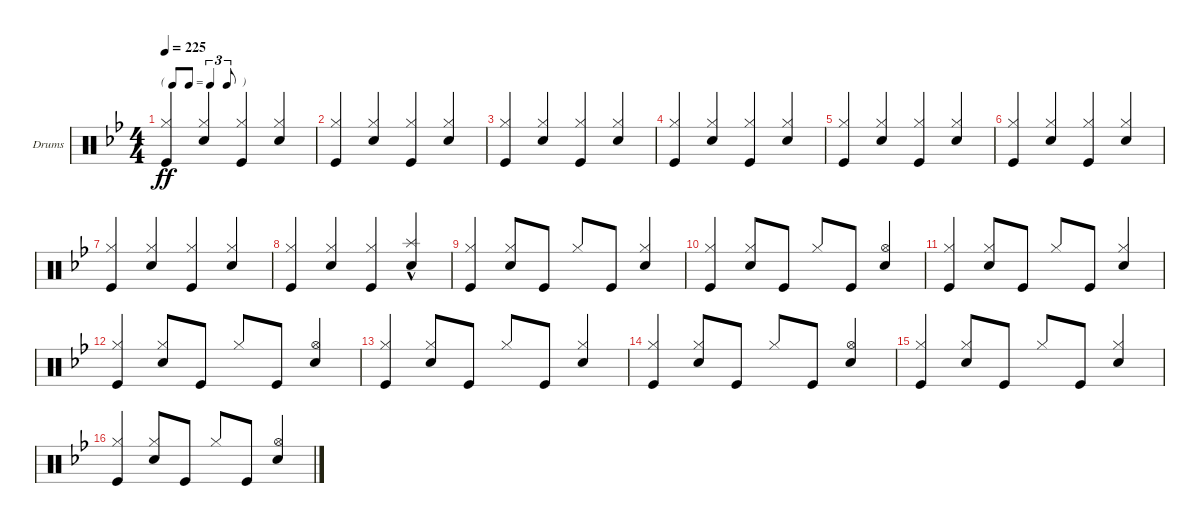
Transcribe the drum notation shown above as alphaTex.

\defaultSystemsLayout 4
\bracketExtendMode groupsimilarinstruments
\firstSystemTrackNameOrientation horizontal
\otherSystemsTrackNameOrientation horizontal
\track ("Drumkit" "Drums") {instrument percussion}
\staff {score}
\articulation defaults
\ts (4 4)
\tf triplet8th
\tempo 225
\clef neutral
\ks gminor
("Kick (hit)" "Hi-Hat (closed)").4{dy ff} ("Snare (hit) 2" "Hi-Hat (closed)").4{beam invert} ("Kick (hit)" "Hi-Hat (closed)").4 ("Snare (hit) 2" "Hi-Hat (closed)").4{beam invert} |
("Kick (hit)" "Hi-Hat (closed)").4 ("Snare (hit) 2" "Hi-Hat (closed)").4{beam invert} ("Kick (hit)" "Hi-Hat (closed)").4 ("Snare (hit) 2" "Hi-Hat (closed)").4{beam invert} |
("Kick (hit)" "Hi-Hat (closed)").4 ("Snare (hit) 2" "Hi-Hat (closed)").4{beam invert} ("Kick (hit)" "Hi-Hat (closed)").4 ("Snare (hit) 2" "Hi-Hat (closed)").4{beam invert} |
("Kick (hit)" "Hi-Hat (closed)").4 ("Snare (hit) 2" "Hi-Hat (closed)").4{beam invert} ("Kick (hit)" "Hi-Hat (closed)").4 ("Snare (hit) 2" "Hi-Hat (closed)").4{beam invert} |
("Kick (hit)" "Hi-Hat (closed)").4 ("Snare (hit) 2" "Hi-Hat (closed)").4{beam invert} ("Kick (hit)" "Hi-Hat (closed)").4 ("Snare (hit) 2" "Hi-Hat (closed)").4{beam invert} |
("Kick (hit)" "Hi-Hat (closed)").4 ("Snare (hit) 2" "Hi-Hat (closed)").4{beam invert} ("Kick (hit)" "Hi-Hat (closed)").4 ("Snare (hit) 2" "Hi-Hat (closed)").4{beam invert} |
("Kick (hit)" "Hi-Hat (closed)").4 ("Snare (hit) 2" "Hi-Hat (closed)").4{beam invert} ("Kick (hit)" "Hi-Hat (closed)").4 ("Snare (hit) 2" "Hi-Hat (closed)").4{beam invert} |
("Kick (hit)" "Hi-Hat (closed)").4 ("Snare (hit) 2" "Hi-Hat (closed)").4{beam invert} ("Kick (hit)" "Hi-Hat (closed)").4 ("Snare (hit) 2" "Splash (hit)"{hac}).4{beam invert} |
("Kick (hit)" "Hi-Hat (closed)").4 ("Snare (hit) 2" "Hi-Hat (closed)").8{beam invert} "Kick (hit)".8 "Hi-Hat (closed)".8{beam invert} "Kick (hit)".8 ("Snare (hit) 2" "Hi-Hat (closed)").4{beam invert} |
("Kick (hit)" "Hi-Hat (closed)").4 ("Snare (hit) 2" "Hi-Hat (closed)").8{beam invert} "Kick (hit)".8 "Hi-Hat (closed)".8{beam invert} "Kick (hit)".8 ("Snare (hit) 2" "Hi-Hat (open)").4{beam invert} |
("Kick (hit)" "Hi-Hat (closed)").4 ("Snare (hit) 2" "Hi-Hat (closed)").8{beam invert} "Kick (hit)".8 "Hi-Hat (closed)".8{beam invert} "Kick (hit)".8 ("Snare (hit) 2" "Hi-Hat (closed)").4{beam invert} |
("Kick (hit)" "Hi-Hat (closed)").4 ("Snare (hit) 2" "Hi-Hat (closed)").8{beam invert} "Kick (hit)".8 "Hi-Hat (closed)".8{beam invert} "Kick (hit)".8 ("Snare (hit) 2" "Hi-Hat (open)").4{beam invert} |
("Kick (hit)" "Hi-Hat (closed)").4 ("Snare (hit) 2" "Hi-Hat (closed)").8{beam invert} "Kick (hit)".8 "Hi-Hat (closed)".8{beam invert} "Kick (hit)".8 ("Snare (hit) 2" "Hi-Hat (closed)").4{beam invert} |
("Kick (hit)" "Hi-Hat (closed)").4 ("Snare (hit) 2" "Hi-Hat (closed)").8{beam invert} "Kick (hit)".8 "Hi-Hat (closed)".8{beam invert} "Kick (hit)".8 ("Snare (hit) 2" "Hi-Hat (open)").4{beam invert} |
("Kick (hit)" "Hi-Hat (closed)").4 ("Snare (hit) 2" "Hi-Hat (closed)").8{beam invert} "Kick (hit)".8 "Hi-Hat (closed)".8{beam invert} "Kick (hit)".8 ("Snare (hit) 2" "Hi-Hat (closed)").4{beam invert} |
("Kick (hit)" "Hi-Hat (closed)").4 ("Snare (hit) 2" "Hi-Hat (closed)").8{beam invert} "Kick (hit)".8 "Hi-Hat (closed)".8{beam invert} "Kick (hit)".8 ("Snare (hit) 2" "Hi-Hat (open)").4{beam invert}
